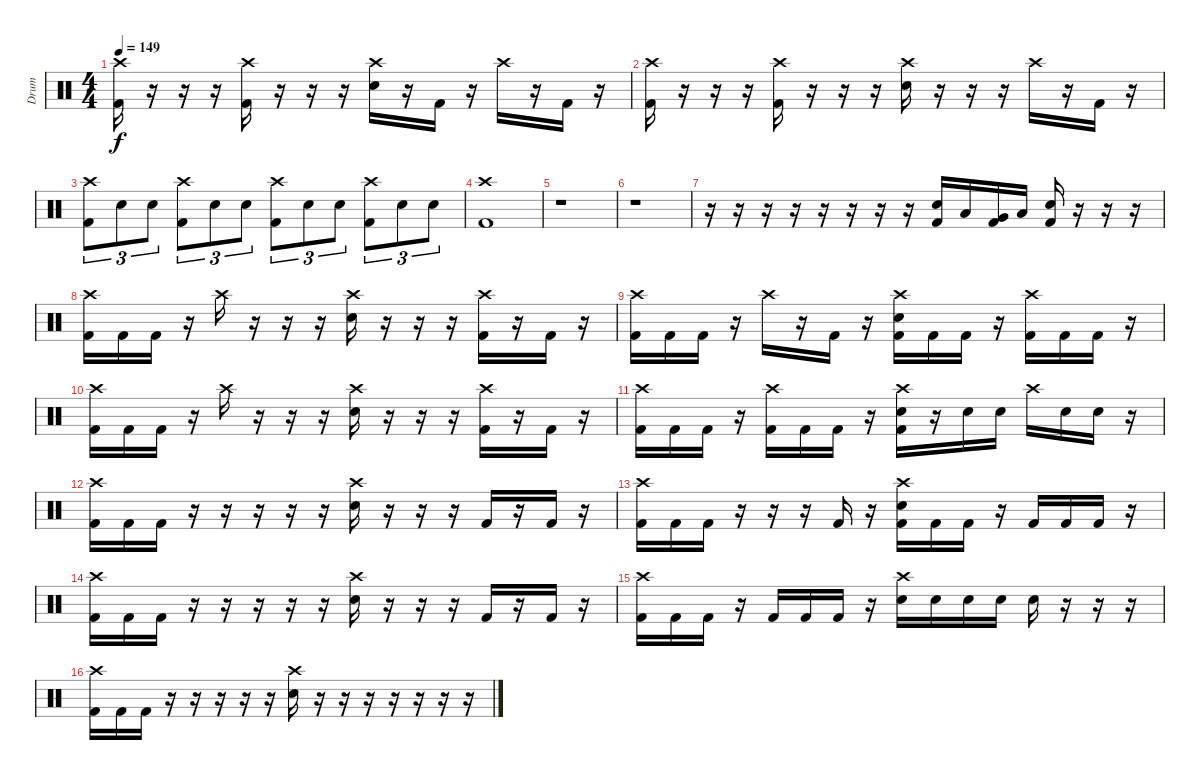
\track ("Drum" "Drum") {instrument percussion}
\staff {score}
\articulation defaults
\ts (4 4)
\tempo 149
\clef neutral
\ks c
("Crash high (hit)" "Kick (hit) 2").16{dy f} r.16 r.16 r.16 ("Crash high (hit)" "Kick (hit) 2").16 r.16 r.16 r.16 ("Crash high (hit)" "Electric Snare (hit)").16 r.16 "Kick (hit) 2".16 r.16 "Crash high (hit)".16 r.16 "Kick (hit) 2".16 r.16 |
("Crash high (hit)" "Kick (hit) 2").16 r.16 r.16 r.16 ("Crash high (hit)" "Kick (hit) 2").16 r.16 r.16 r.16 ("Crash high (hit)" "Electric Snare (hit)").16 r.16 r.16 r.16 "Crash high (hit)".16 r.16 "Kick (hit) 2".16 r.16 |
("Crash high (hit)" "Kick (hit) 2").8{tu (3 2)} "Electric Snare (hit)".8{tu (3 2)} "Electric Snare (hit)".8{tu (3 2)} ("Crash high (hit)" "Kick (hit) 2").8{tu (3 2)} "Electric Snare (hit)".8{tu (3 2)} "Electric Snare (hit)".8{tu (3 2)} ("Crash high (hit)" "Kick (hit) 2").8{tu (3 2)} "Electric Snare (hit)".8{tu (3 2)} "Electric Snare (hit)".8{tu (3 2)} ("Crash high (hit)" "Kick (hit) 2").8{tu (3 2)} "Electric Snare (hit)".8{tu (3 2)} "Electric Snare (hit)".8{tu (3 2)} |
("Crash high (hit)" "Kick (hit) 2").1 |
r.1 |
r.1 |
r.16 r.16 r.16 r.16 r.16 r.16 r.16 r.16 ("Electric Snare (hit)" "Kick (hit) 2").16 "Low Tom (hit)".16 ("Very Low Tom (hit)" "Kick (hit) 2").16 "Low Floor Tom (hit)".16 ("Electric Snare (hit)" "Kick (hit) 2").16 r.16 r.16 r.16 |
("Crash high (hit)" "Kick (hit) 2").16 "Kick (hit) 2".16 "Kick (hit) 2".16 r.16 "Crash high (hit)".16 r.16 r.16 r.16 ("Crash high (hit)" "Electric Snare (hit)").16 r.16 r.16 r.16 ("Crash high (hit)" "Kick (hit) 2").16 r.16 "Kick (hit) 2".16 r.16 |
("Crash high (hit)" "Kick (hit) 2").16 "Kick (hit) 2".16 "Kick (hit) 2".16 r.16 "Crash high (hit)".16 r.16 "Kick (hit) 2".16 r.16 ("Crash high (hit)" "Electric Snare (hit)" "Kick (hit) 2").16 "Kick (hit) 2".16 "Kick (hit) 2".16 r.16 ("Crash high (hit)" "Kick (hit) 2").16 "Kick (hit) 2".16 "Kick (hit) 2".16 r.16 |
("Crash high (hit)" "Kick (hit) 2").16 "Kick (hit) 2".16 "Kick (hit) 2".16 r.16 "Crash high (hit)".16 r.16 r.16 r.16 ("Crash high (hit)" "Electric Snare (hit)").16 r.16 r.16 r.16 ("Crash high (hit)" "Kick (hit) 2").16 r.16 "Kick (hit) 2".16 r.16 |
("Crash high (hit)" "Kick (hit) 2").16 "Kick (hit) 2".16 "Kick (hit) 2".16 r.16 ("Crash high (hit)" "Kick (hit) 2").16 "Kick (hit) 2".16 "Kick (hit) 2".16 r.16 ("Crash high (hit)" "Electric Snare (hit)" "Kick (hit) 2").16 r.16 "Electric Snare (hit)".16 "Electric Snare (hit)".16 "Crash high (hit)".16 "Electric Snare (hit)".16 "Electric Snare (hit)".16 r.16 |
("Crash high (hit)" "Kick (hit) 2").16 "Kick (hit) 2".16 "Kick (hit) 2".16 r.16 r.16 r.16 r.16 r.16 ("Crash high (hit)" "Electric Snare (hit)").16 r.16 r.16 r.16 "Kick (hit) 2".16 r.16 "Kick (hit) 2".16 r.16 |
("Crash high (hit)" "Kick (hit) 2").16 "Kick (hit) 2".16 "Kick (hit) 2".16 r.16 r.16 r.16 "Kick (hit) 2".16 r.16 ("Crash high (hit)" "Electric Snare (hit)" "Kick (hit) 2").16 "Kick (hit) 2".16 "Kick (hit) 2".16 r.16 "Kick (hit) 2".16 "Kick (hit) 2".16 "Kick (hit) 2".16 r.16 |
("Crash high (hit)" "Kick (hit) 2").16 "Kick (hit) 2".16 "Kick (hit) 2".16 r.16 r.16 r.16 r.16 r.16 ("Crash high (hit)" "Electric Snare (hit)").16 r.16 r.16 r.16 "Kick (hit) 2".16 r.16 "Kick (hit) 2".16 r.16 |
("Crash high (hit)" "Kick (hit) 2").16 "Kick (hit) 2".16 "Kick (hit) 2".16 r.16 "Kick (hit) 2".16 "Kick (hit) 2".16 "Kick (hit) 2".16 r.16 ("Crash high (hit)" "Electric Snare (hit)").16 "Electric Snare (hit)".16 "Electric Snare (hit)".16 "Electric Snare (hit)".16 "Electric Snare (hit)".16 r.16 r.16 r.16 |
("Crash high (hit)" "Kick (hit) 2").16 "Kick (hit) 2".16 "Kick (hit) 2".16 r.16 r.16 r.16 r.16 r.16 ("Crash high (hit)" "Electric Snare (hit)").16 r.16 r.16 r.16 r.16 r.16 r.16 r.16
